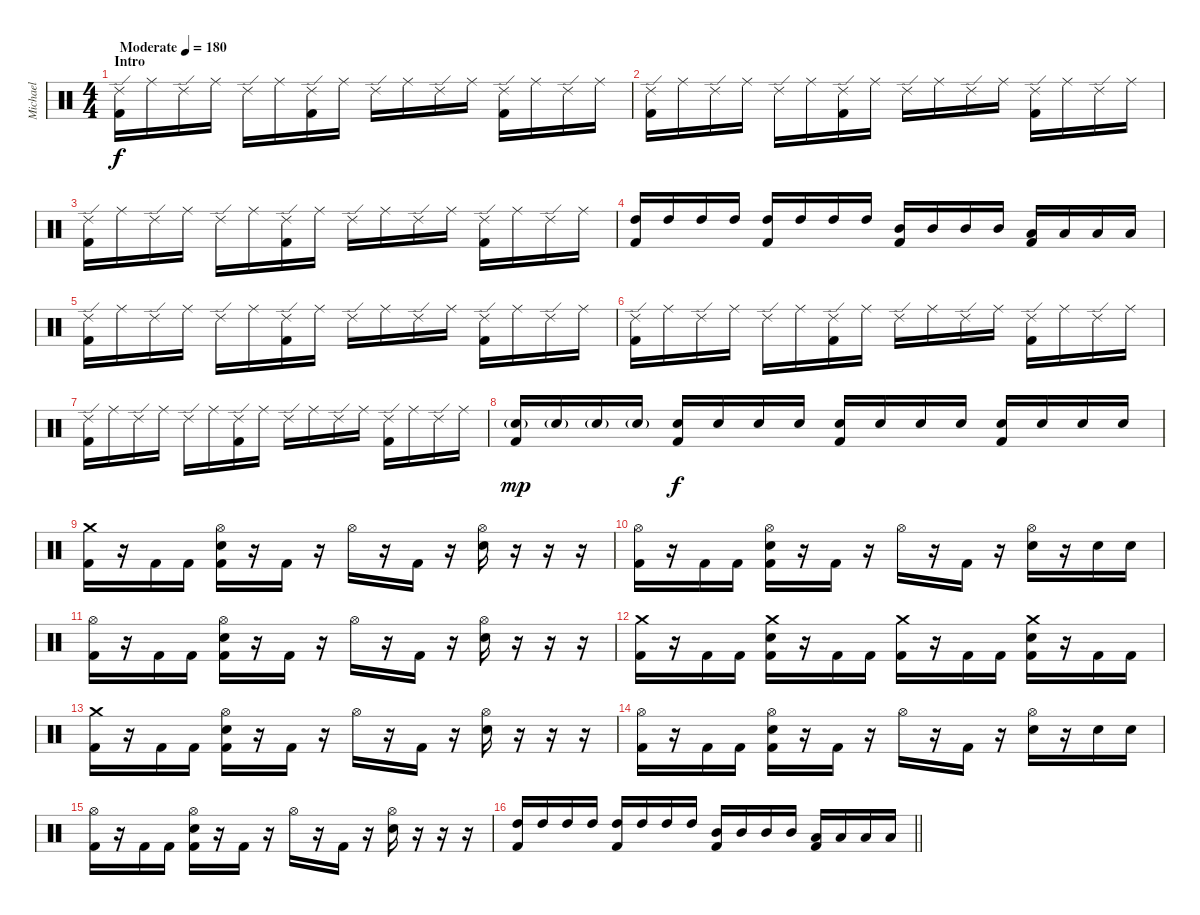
\track ("Michael" "Michael") {instrument percussion}
\staff {score}
\articulation defaults
\ts (4 4)
\section ("" "Intro")
\tempo (180 "Moderate")
\clef neutral
\ks c
("Ride (edge) 2" "Kick (hit) 2").16{dy f} "Ride (middle)".16 "Ride (edge) 2".16 "Ride (middle)".16 "Ride (edge) 2".16 "Ride (middle)".16 ("Ride (edge) 2" "Kick (hit) 2").16 "Ride (middle)".16 "Ride (edge) 2".16 "Ride (middle)".16 "Ride (edge) 2".16 "Ride (middle)".16 ("Ride (edge) 2" "Kick (hit) 2").16 "Ride (middle)".16 "Ride (edge) 2".16 "Ride (middle)".16 |
("Ride (edge) 2" "Kick (hit) 2").16 "Ride (middle)".16 "Ride (edge) 2".16 "Ride (middle)".16 "Ride (edge) 2".16 "Ride (middle)".16 ("Ride (edge) 2" "Kick (hit) 2").16 "Ride (middle)".16 "Ride (edge) 2".16 "Ride (middle)".16 "Ride (edge) 2".16 "Ride (middle)".16 ("Ride (edge) 2" "Kick (hit) 2").16 "Ride (middle)".16 "Ride (edge) 2".16 "Ride (middle)".16 |
("Ride (edge) 2" "Kick (hit) 2").16 "Ride (middle)".16 "Ride (edge) 2".16 "Ride (middle)".16 "Ride (edge) 2".16 "Ride (middle)".16 ("Ride (edge) 2" "Kick (hit) 2").16 "Ride (middle)".16 "Ride (edge) 2".16 "Ride (middle)".16 "Ride (edge) 2".16 "Ride (middle)".16 ("Ride (edge) 2" "Kick (hit) 2").16 "Ride (middle)".16 "Ride (edge) 2".16 "Ride (middle)".16 |
("High Tom (hit)" "Kick (hit) 2").16 "High Tom (hit)".16 "High Tom (hit)".16 "High Tom (hit)".16 ("High Tom (hit)" "Kick (hit) 2").16 "High Tom (hit)".16 "High Tom (hit)".16 "High Tom (hit)".16 ("Mid Tom (hit)" "Kick (hit) 2").16 "Mid Tom (hit)".16 "Mid Tom (hit)".16 "Mid Tom (hit)".16 ("Low Tom (hit)" "Kick (hit) 2").16 "Low Tom (hit)".16 "Low Tom (hit)".16 "Low Tom (hit)".16 |
("Ride (edge) 2" "Kick (hit) 2").16 "Ride (middle)".16 "Ride (edge) 2".16 "Ride (middle)".16 "Ride (edge) 2".16 "Ride (middle)".16 ("Ride (edge) 2" "Kick (hit) 2").16 "Ride (middle)".16 "Ride (edge) 2".16 "Ride (middle)".16 "Ride (edge) 2".16 "Ride (middle)".16 ("Ride (edge) 2" "Kick (hit) 2").16 "Ride (middle)".16 "Ride (edge) 2".16 "Ride (middle)".16 |
("Ride (edge) 2" "Kick (hit) 2").16 "Ride (middle)".16 "Ride (edge) 2".16 "Ride (middle)".16 "Ride (edge) 2".16 "Ride (middle)".16 ("Ride (edge) 2" "Kick (hit) 2").16 "Ride (middle)".16 "Ride (edge) 2".16 "Ride (middle)".16 "Ride (edge) 2".16 "Ride (middle)".16 ("Ride (edge) 2" "Kick (hit) 2").16 "Ride (middle)".16 "Ride (edge) 2".16 "Ride (middle)".16 |
("Ride (edge) 2" "Kick (hit) 2").16 "Ride (middle)".16 "Ride (edge) 2".16 "Ride (middle)".16 "Ride (edge) 2".16 "Ride (middle)".16 ("Ride (edge) 2" "Kick (hit) 2").16 "Ride (middle)".16 "Ride (edge) 2".16 "Ride (middle)".16 "Ride (edge) 2".16 "Ride (middle)".16 ("Ride (edge) 2" "Kick (hit) 2").16 "Ride (middle)".16 "Ride (edge) 2".16 "Ride (middle)".16 |
("Electric Snare (hit)"{g} "Kick (hit) 2").16{dy mp} "Electric Snare (hit)"{g}.16 "Electric Snare (hit)"{g}.16 "Electric Snare (hit)"{g}.16 ("Electric Snare (hit)" "Kick (hit) 2").16{dy f} "Electric Snare (hit)".16 "Electric Snare (hit)".16 "Electric Snare (hit)".16 ("Electric Snare (hit)" "Kick (hit) 2").16 "Electric Snare (hit)".16 "Electric Snare (hit)".16 "Electric Snare (hit)".16 ("Electric Snare (hit)" "Kick (hit) 2").16 "Electric Snare (hit)".16 "Electric Snare (hit)".16 "Electric Snare (hit)".16 |
("Crash medium (hit)" "Kick (hit) 2").16 r.16 "Kick (hit) 2".16 "Kick (hit) 2".16 ("Hi-Hat (open)" "Electric Snare (hit)" "Kick (hit) 2").16 r.16 "Kick (hit) 2".16 r.16 "Hi-Hat (open)".16 r.16 "Kick (hit) 2".16 r.16 ("Hi-Hat (open)" "Electric Snare (hit)").16 r.16 r.16 r.16 |
("Hi-Hat (open)" "Kick (hit) 2").16 r.16 "Kick (hit) 2".16 "Kick (hit) 2".16 ("Hi-Hat (open)" "Electric Snare (hit)" "Kick (hit) 2").16 r.16 "Kick (hit) 2".16 r.16 "Hi-Hat (open)".16 r.16 "Kick (hit) 2".16 r.16 ("Hi-Hat (open)" "Electric Snare (hit)").16 r.16 "Electric Snare (hit)".16 "Electric Snare (hit)".16 |
("Hi-Hat (open)" "Kick (hit) 2").16 r.16 "Kick (hit) 2".16 "Kick (hit) 2".16 ("Hi-Hat (open)" "Electric Snare (hit)" "Kick (hit) 2").16 r.16 "Kick (hit) 2".16 r.16 "Hi-Hat (open)".16 r.16 "Kick (hit) 2".16 r.16 ("Hi-Hat (open)" "Electric Snare (hit)").16 r.16 r.16 r.16 |
("Crash medium (hit)" "Kick (hit) 2").16 r.16 "Kick (hit) 2".16 "Kick (hit) 2".16 ("Crash medium (hit)" "Electric Snare (hit)" "Kick (hit) 2").16 r.16 "Kick (hit) 2".16 "Kick (hit) 2".16 ("Crash medium (hit)" "Kick (hit) 2").16 r.16 "Kick (hit) 2".16 "Kick (hit) 2".16 ("Crash medium (hit)" "Electric Snare (hit)" "Kick (hit) 2").16 r.16 "Kick (hit) 2".16 "Kick (hit) 2".16 |
("Crash medium (hit)" "Kick (hit) 2").16 r.16 "Kick (hit) 2".16 "Kick (hit) 2".16 ("Hi-Hat (open)" "Electric Snare (hit)" "Kick (hit) 2").16 r.16 "Kick (hit) 2".16 r.16 "Hi-Hat (open)".16 r.16 "Kick (hit) 2".16 r.16 ("Hi-Hat (open)" "Electric Snare (hit)").16 r.16 r.16 r.16 |
("Hi-Hat (open)" "Kick (hit) 2").16 r.16 "Kick (hit) 2".16 "Kick (hit) 2".16 ("Hi-Hat (open)" "Electric Snare (hit)" "Kick (hit) 2").16 r.16 "Kick (hit) 2".16 r.16 "Hi-Hat (open)".16 r.16 "Kick (hit) 2".16 r.16 ("Hi-Hat (open)" "Electric Snare (hit)").16 r.16 "Electric Snare (hit)".16 "Electric Snare (hit)".16 |
("Hi-Hat (open)" "Kick (hit) 2").16 r.16 "Kick (hit) 2".16 "Kick (hit) 2".16 ("Hi-Hat (open)" "Electric Snare (hit)" "Kick (hit) 2").16 r.16 "Kick (hit) 2".16 r.16 "Hi-Hat (open)".16 r.16 "Kick (hit) 2".16 r.16 ("Hi-Hat (open)" "Electric Snare (hit)").16 r.16 r.16 r.16 |
\barLineRight lightlight
("High Tom (hit)" "Kick (hit) 2").16 "High Tom (hit)".16 "High Tom (hit)".16 "High Tom (hit)".16 ("High Tom (hit)" "Kick (hit) 2").16 "High Tom (hit)".16 "High Tom (hit)".16 "High Tom (hit)".16 ("Mid Tom (hit)" "Kick (hit) 2").16 "Mid Tom (hit)".16 "Mid Tom (hit)".16 "Mid Tom (hit)".16 ("Low Tom (hit)" "Kick (hit) 2").16 "Low Tom (hit)".16 "Low Tom (hit)".16 "Low Tom (hit)".16
